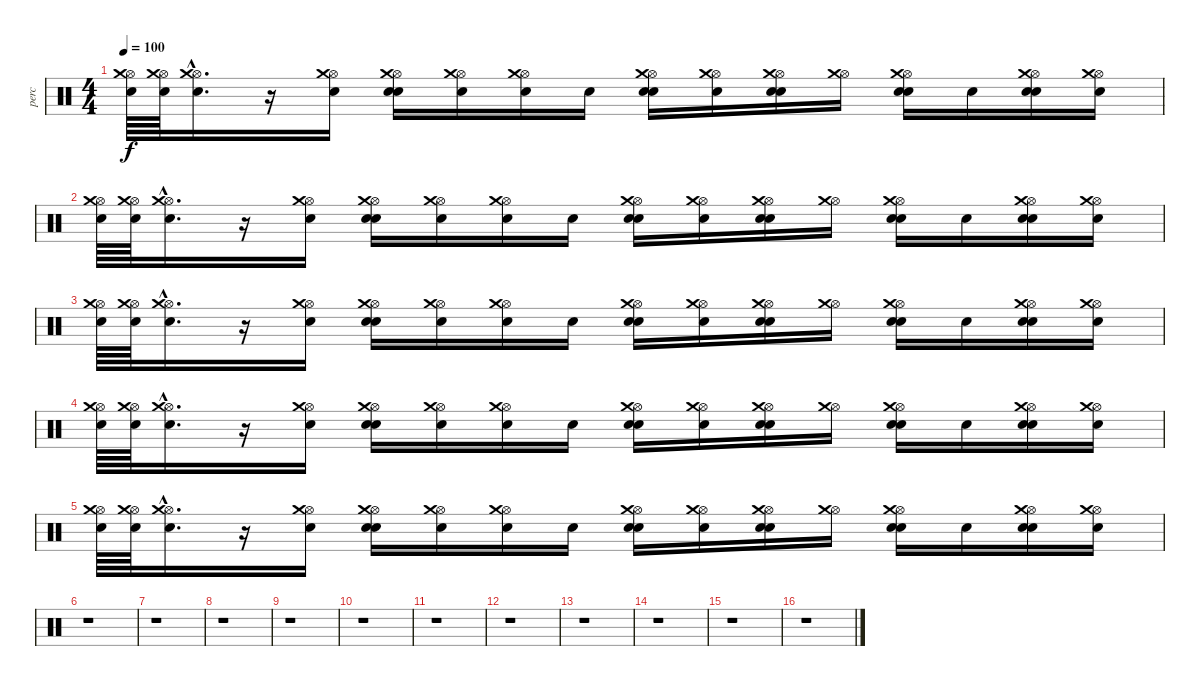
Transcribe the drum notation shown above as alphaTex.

\track ("perc" "perc") {instrument percussion}
\staff {score}
\articulation defaults
\ts (4 4)
\tempo 100
\clef neutral
\ks c
("Hi-Hat (open)" "Crash medium (hit)" "Electric Snare (hit)").64{dy f} ("Hi-Hat (open)" "Crash medium (hit)" "Electric Snare (hit)").64 ("Hi-Hat (open)"{hac} "Crash medium (hit)"{hac} "Electric Snare (hit)"{hac}).16{d} r.16 ("Hi-Hat (open)" "Crash medium (hit)" "Electric Snare (hit)").16 ("Hi-Hat (open)" "Crash medium (hit)" "Electric Snare (hit)" "Snare (hit) 2").16 ("Hi-Hat (open)" "Crash medium (hit)" "Electric Snare (hit)").16 ("Hi-Hat (open)" "Crash medium (hit)" "Snare (hit) 2").16 "Electric Snare (hit)".16 ("Hi-Hat (open)" "Crash medium (hit)" "Electric Snare (hit)" "Snare (hit) 2").16 ("Hi-Hat (open)" "Crash medium (hit)" "Electric Snare (hit)").16 ("Hi-Hat (open)" "Crash medium (hit)" "Electric Snare (hit)" "Snare (hit) 2").16 ("Hi-Hat (open)" "Crash medium (hit)").16 ("Hi-Hat (open)" "Crash medium (hit)" "Electric Snare (hit)" "Snare (hit) 2").16 "Electric Snare (hit)".16 ("Hi-Hat (open)" "Crash medium (hit)" "Electric Snare (hit)" "Snare (hit) 2").16 ("Hi-Hat (open)" "Crash medium (hit)" "Electric Snare (hit)").16 |
("Hi-Hat (open)" "Crash medium (hit)" "Electric Snare (hit)").64 ("Hi-Hat (open)" "Crash medium (hit)" "Electric Snare (hit)").64 ("Hi-Hat (open)"{hac} "Crash medium (hit)"{hac} "Electric Snare (hit)"{hac}).16{d} r.16 ("Hi-Hat (open)" "Crash medium (hit)" "Electric Snare (hit)").16 ("Hi-Hat (open)" "Crash medium (hit)" "Electric Snare (hit)" "Snare (hit) 2").16 ("Hi-Hat (open)" "Crash medium (hit)" "Electric Snare (hit)").16 ("Hi-Hat (open)" "Crash medium (hit)" "Snare (hit) 2").16 "Electric Snare (hit)".16 ("Hi-Hat (open)" "Crash medium (hit)" "Electric Snare (hit)" "Snare (hit) 2").16 ("Hi-Hat (open)" "Crash medium (hit)" "Electric Snare (hit)").16 ("Hi-Hat (open)" "Crash medium (hit)" "Electric Snare (hit)" "Snare (hit) 2").16 ("Hi-Hat (open)" "Crash medium (hit)").16 ("Hi-Hat (open)" "Crash medium (hit)" "Electric Snare (hit)" "Snare (hit) 2").16 "Electric Snare (hit)".16 ("Hi-Hat (open)" "Crash medium (hit)" "Electric Snare (hit)" "Snare (hit) 2").16 ("Hi-Hat (open)" "Crash medium (hit)" "Electric Snare (hit)").16 |
("Hi-Hat (open)" "Crash medium (hit)" "Electric Snare (hit)").64 ("Hi-Hat (open)" "Crash medium (hit)" "Electric Snare (hit)").64 ("Hi-Hat (open)"{hac} "Crash medium (hit)"{hac} "Electric Snare (hit)"{hac}).16{d} r.16 ("Hi-Hat (open)" "Crash medium (hit)" "Electric Snare (hit)").16 ("Hi-Hat (open)" "Crash medium (hit)" "Electric Snare (hit)" "Snare (hit) 2").16 ("Hi-Hat (open)" "Crash medium (hit)" "Electric Snare (hit)").16 ("Hi-Hat (open)" "Crash medium (hit)" "Snare (hit) 2").16 "Electric Snare (hit)".16 ("Hi-Hat (open)" "Crash medium (hit)" "Electric Snare (hit)" "Snare (hit) 2").16 ("Hi-Hat (open)" "Crash medium (hit)" "Electric Snare (hit)").16 ("Hi-Hat (open)" "Crash medium (hit)" "Electric Snare (hit)" "Snare (hit) 2").16 ("Hi-Hat (open)" "Crash medium (hit)").16 ("Hi-Hat (open)" "Crash medium (hit)" "Electric Snare (hit)" "Snare (hit) 2").16 "Electric Snare (hit)".16 ("Hi-Hat (open)" "Crash medium (hit)" "Electric Snare (hit)" "Snare (hit) 2").16 ("Hi-Hat (open)" "Crash medium (hit)" "Electric Snare (hit)").16 |
("Hi-Hat (open)" "Crash medium (hit)" "Electric Snare (hit)").64 ("Hi-Hat (open)" "Crash medium (hit)" "Electric Snare (hit)").64 ("Hi-Hat (open)"{hac} "Crash medium (hit)"{hac} "Electric Snare (hit)"{hac}).16{d} r.16 ("Hi-Hat (open)" "Crash medium (hit)" "Electric Snare (hit)").16 ("Hi-Hat (open)" "Crash medium (hit)" "Electric Snare (hit)" "Snare (hit) 2").16 ("Hi-Hat (open)" "Crash medium (hit)" "Electric Snare (hit)").16 ("Hi-Hat (open)" "Crash medium (hit)" "Snare (hit) 2").16 "Electric Snare (hit)".16 ("Hi-Hat (open)" "Crash medium (hit)" "Electric Snare (hit)" "Snare (hit) 2").16 ("Hi-Hat (open)" "Crash medium (hit)" "Electric Snare (hit)").16 ("Hi-Hat (open)" "Crash medium (hit)" "Electric Snare (hit)" "Snare (hit) 2").16 ("Hi-Hat (open)" "Crash medium (hit)").16 ("Hi-Hat (open)" "Crash medium (hit)" "Electric Snare (hit)" "Snare (hit) 2").16 "Electric Snare (hit)".16 ("Hi-Hat (open)" "Crash medium (hit)" "Electric Snare (hit)" "Snare (hit) 2").16 ("Hi-Hat (open)" "Crash medium (hit)" "Electric Snare (hit)").16 |
("Hi-Hat (open)" "Crash medium (hit)" "Electric Snare (hit)").64 ("Hi-Hat (open)" "Crash medium (hit)" "Electric Snare (hit)").64 ("Hi-Hat (open)"{hac} "Crash medium (hit)"{hac} "Electric Snare (hit)"{hac}).16{d} r.16 ("Hi-Hat (open)" "Crash medium (hit)" "Electric Snare (hit)").16 ("Hi-Hat (open)" "Crash medium (hit)" "Electric Snare (hit)" "Snare (hit) 2").16 ("Hi-Hat (open)" "Crash medium (hit)" "Electric Snare (hit)").16 ("Hi-Hat (open)" "Crash medium (hit)" "Snare (hit) 2").16 "Electric Snare (hit)".16 ("Hi-Hat (open)" "Crash medium (hit)" "Electric Snare (hit)" "Snare (hit) 2").16 ("Hi-Hat (open)" "Crash medium (hit)" "Electric Snare (hit)").16 ("Hi-Hat (open)" "Crash medium (hit)" "Electric Snare (hit)" "Snare (hit) 2").16 ("Hi-Hat (open)" "Crash medium (hit)").16 ("Hi-Hat (open)" "Crash medium (hit)" "Electric Snare (hit)" "Snare (hit) 2").16 "Electric Snare (hit)".16 ("Hi-Hat (open)" "Crash medium (hit)" "Electric Snare (hit)" "Snare (hit) 2").16 ("Hi-Hat (open)" "Crash medium (hit)" "Electric Snare (hit)").16 |
r.1 |
r.1 |
r.1 |
r.1 |
r.1 |
r.1 |
r.1 |
r.1 |
r.1 |
r.1 |
r.1
